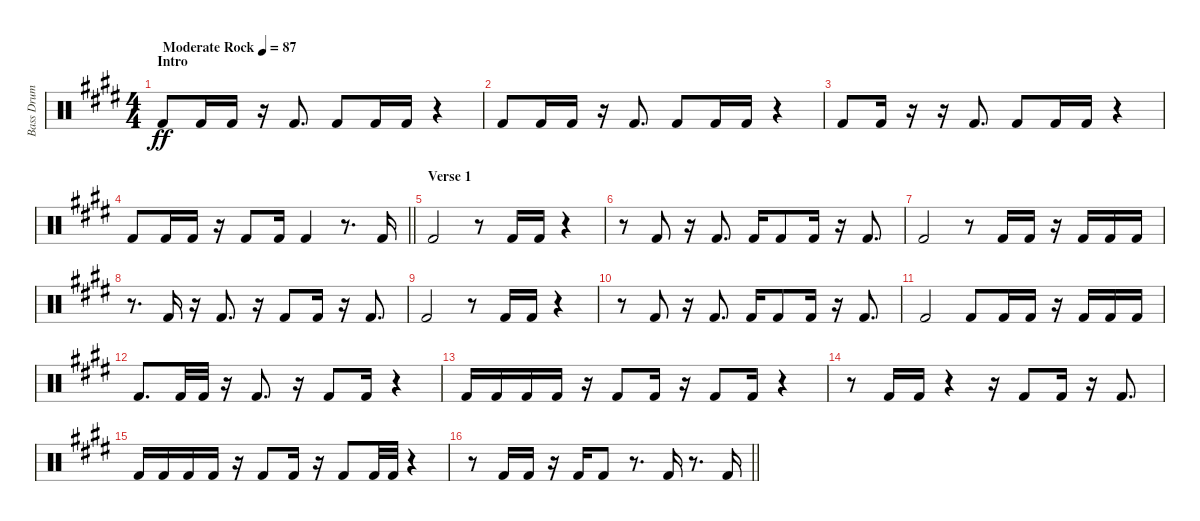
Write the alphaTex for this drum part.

\track ("Bass Drum" "Bass Drum") {instrument percussion}
\staff {score}
\articulation defaults
\ts (4 4)
\section ("" "Intro")
\tempo (87 "Moderate Rock")
\clef neutral
\ks c#minor "Kick (hit) 2".8{dy ff} "Kick (hit) 2".16 "Kick (hit) 2".16
r.16 "Kick (hit) 2".8{d} "Kick (hit) 2".8 "Kick (hit) 2".16 "Kick (hit) 2".16 r.4 |
"Kick (hit) 2".8 "Kick (hit) 2".16 "Kick (hit) 2".16 r.16 "Kick (hit) 2".8{d} "Kick (hit) 2".8 "Kick (hit) 2".16 "Kick (hit) 2".16 r.4 |
"Kick (hit) 2".8 "Kick (hit) 2".16 r.16 r.16 "Kick (hit) 2".8{d} "Kick (hit) 2".8 "Kick (hit) 2".16 "Kick (hit) 2".16 r.4 |
\barLineRight lightlight "Kick (hit) 2".8 "Kick (hit) 2".16 "Kick (hit) 2".16
r.16 "Kick (hit) 2".8 "Kick (hit) 2".16 "Kick (hit) 2".4 r.8{d} "Kick (hit) 2".16 |
\section ("" "Verse 1")
"Kick (hit) 2".2 r.8 "Kick (hit) 2".16 "Kick (hit) 2".16 r.4 |
r.8 "Kick (hit) 2".8 r.16 "Kick (hit) 2".8{d} "Kick (hit) 2".16 "Kick (hit) 2".8 "Kick (hit) 2".16 r.16 "Kick (hit) 2".8{d} |
"Kick (hit) 2".2 r.8 "Kick (hit) 2".16 "Kick (hit) 2".16 r.16 "Kick (hit) 2".16 "Kick (hit) 2".16 "Kick (hit) 2".16 |
r.8{d} "Kick (hit) 2".16 r.16 "Kick (hit) 2".8{d} r.16 "Kick (hit) 2".8 "Kick (hit) 2".16 r.16 "Kick (hit) 2".8{d} |
"Kick (hit) 2".2 r.8 "Kick (hit) 2".16 "Kick (hit) 2".16 r.4 |
r.8 "Kick (hit) 2".8 r.16 "Kick (hit) 2".8{d} "Kick (hit) 2".16 "Kick (hit) 2".8 "Kick (hit) 2".16 r.16 "Kick (hit) 2".8{d} |
"Kick (hit) 2".2 "Kick (hit) 2".8 "Kick (hit) 2".16 "Kick (hit) 2".16 r.16 "Kick (hit) 2".16 "Kick (hit) 2".16 "Kick (hit) 2".16 |
"Kick (hit) 2".8{d} "Kick (hit) 2".32 "Kick (hit) 2".32 r.16 "Kick (hit) 2".8{d} r.16 "Kick (hit) 2".8 "Kick (hit) 2".16 r.4 |
"Kick (hit) 2".16 "Kick (hit) 2".16 "Kick (hit) 2".16 "Kick (hit) 2".16 r.16 "Kick (hit) 2".8 "Kick (hit) 2".16 r.16 "Kick (hit) 2".8 "Kick (hit) 2".16 r.4 |
r.8 "Kick (hit) 2".16 "Kick (hit) 2".16 r.4 r.16 "Kick (hit) 2".8 "Kick (hit) 2".16 r.16 "Kick (hit) 2".8{d} |
"Kick (hit) 2".16 "Kick (hit) 2".16 "Kick (hit) 2".16 "Kick (hit) 2".16 r.16 "Kick (hit) 2".8 "Kick (hit) 2".16 r.16 "Kick (hit) 2".8 "Kick (hit) 2".32 "Kick (hit) 2".32 r.4 |
\barLineRight lightlight
r.8 "Kick (hit) 2".16 "Kick (hit) 2".16 r.16 "Kick (hit) 2".16 "Kick (hit) 2".8 r.8{d} "Kick (hit) 2".16 r.8{d} "Kick (hit) 2".16
